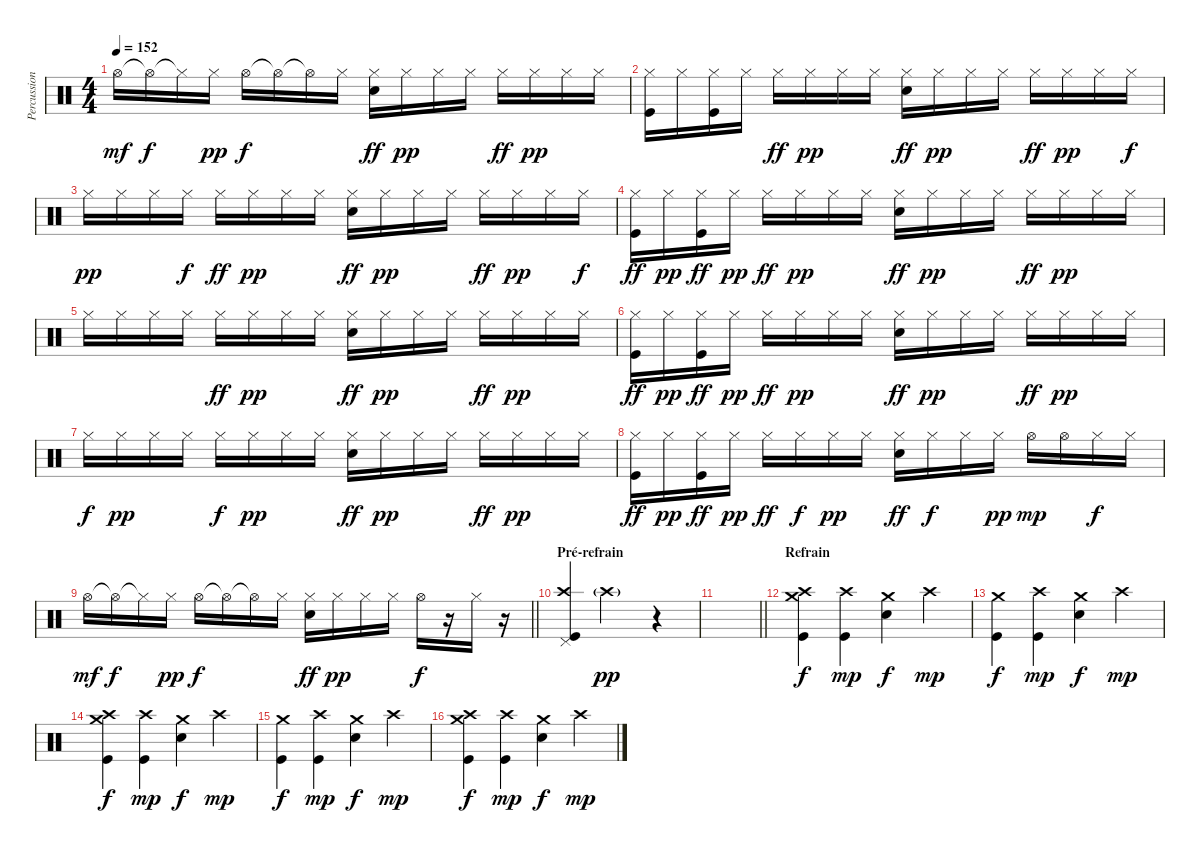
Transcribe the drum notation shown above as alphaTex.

\track ("Percussions" "Percussion") {instrument percussion}
\staff {score}
\articulation defaults
\ts (4 4)
\tempo 152
\clef neutral
\ks c "Hi-Hat (open)".16{dy mf} "Hi-Hat (open)"{t}.16{dy f} "Hi-Hat (closed)"{t}.16 "Hi-Hat (closed)".16{dy pp} "Hi-Hat (open)".16{dy f} "Hi-Hat (open)"{t}.16 "Hi-Hat (open)"{t}.16 "Hi-Hat (closed)".16
("Hi-Hat (closed)" "Snare (hit) 2").16{dy ff} "Hi-Hat (closed)".16{dy pp} "Hi-Hat (closed)".16 "Hi-Hat (closed)".16 "Hi-Hat (closed)".16{dy ff} "Hi-Hat (closed)".16{dy pp} "Hi-Hat (closed)".16 "Hi-Hat (closed)".16 |
("Hi-Hat (closed)" "Kick (hit)").16 "Hi-Hat (closed)".16 ("Hi-Hat (closed)" "Kick (hit)").16 "Hi-Hat (closed)".16 "Hi-Hat (closed)".16{dy ff} "Hi-Hat (closed)".16{dy pp} "Hi-Hat (closed)".16 "Hi-Hat (closed)".16 ("Hi-Hat (closed)" "Snare (hit) 2").16{dy ff} "Hi-Hat (closed)".16{dy pp} "Hi-Hat (closed)".16 "Hi-Hat (closed)".16 "Hi-Hat (closed)".16{dy ff} "Hi-Hat (closed)".16{dy pp} "Hi-Hat (closed)".16 "Hi-Hat (closed)".16{dy f} |
"Hi-Hat (closed)".16{dy pp} "Hi-Hat (closed)".16 "Hi-Hat (closed)".16 "Hi-Hat (closed)".16{dy f} "Hi-Hat (closed)".16{dy ff} "Hi-Hat (closed)".16{dy pp} "Hi-Hat (closed)".16 "Hi-Hat (closed)".16 ("Hi-Hat (closed)" "Snare (hit) 2").16{dy ff} "Hi-Hat (closed)".16{dy pp} "Hi-Hat (closed)".16 "Hi-Hat (closed)".16 "Hi-Hat (closed)".16{dy ff} "Hi-Hat (closed)".16{dy pp} "Hi-Hat (closed)".16 "Hi-Hat (closed)".16{dy f} |
("Hi-Hat (closed)" "Kick (hit)").16{dy ff} "Hi-Hat (closed)".16{dy pp} ("Hi-Hat (closed)" "Kick (hit)").16{dy ff} "Hi-Hat (closed)".16{dy pp} "Hi-Hat (closed)".16{dy ff} "Hi-Hat (closed)".16{dy pp} "Hi-Hat (closed)".16 "Hi-Hat (closed)".16 ("Hi-Hat (closed)" "Snare (hit) 2").16{dy ff} "Hi-Hat (closed)".16{dy pp} "Hi-Hat (closed)".16 "Hi-Hat (closed)".16 "Hi-Hat (closed)".16{dy ff} "Hi-Hat (closed)".16{dy pp} "Hi-Hat (closed)".16 "Hi-Hat (closed)".16 |
"Hi-Hat (closed)".16 "Hi-Hat (closed)".16 "Hi-Hat (closed)".16 "Hi-Hat (closed)".16 "Hi-Hat (closed)".16{dy ff} "Hi-Hat (closed)".16{dy pp} "Hi-Hat (closed)".16 "Hi-Hat (closed)".16 ("Hi-Hat (closed)" "Snare (hit) 2").16{dy ff} "Hi-Hat (closed)".16{dy pp} "Hi-Hat (closed)".16 "Hi-Hat (closed)".16 "Hi-Hat (closed)".16{dy ff} "Hi-Hat (closed)".16{dy pp} "Hi-Hat (closed)".16 "Hi-Hat (closed)".16 |
("Hi-Hat (closed)" "Kick (hit)").16{dy ff} "Hi-Hat (closed)".16{dy pp} ("Hi-Hat (closed)" "Kick (hit)").16{dy ff} "Hi-Hat (closed)".16{dy pp} "Hi-Hat (closed)".16{dy ff} "Hi-Hat (closed)".16{dy pp} "Hi-Hat (closed)".16 "Hi-Hat (closed)".16 ("Hi-Hat (closed)" "Snare (hit) 2").16{dy ff} "Hi-Hat (closed)".16{dy pp} "Hi-Hat (closed)".16 "Hi-Hat (closed)".16 "Hi-Hat (closed)".16{dy ff} "Hi-Hat (closed)".16{dy pp} "Hi-Hat (closed)".16 "Hi-Hat (closed)".16 |
"Hi-Hat (closed)".16{dy f} "Hi-Hat (closed)".16{dy pp} "Hi-Hat (closed)".16 "Hi-Hat (closed)".16 "Hi-Hat (closed)".16{dy f} "Hi-Hat (closed)".16{dy pp} "Hi-Hat (closed)".16 "Hi-Hat (closed)".16 ("Hi-Hat (closed)" "Snare (hit) 2").16{dy ff} "Hi-Hat (closed)".16{dy pp} "Hi-Hat (closed)".16 "Hi-Hat (closed)".16 "Hi-Hat (closed)".16{dy ff} "Hi-Hat (closed)".16{dy pp} "Hi-Hat (closed)".16 "Hi-Hat (closed)".16 |
("Hi-Hat (closed)" "Kick (hit)").16{dy ff} "Hi-Hat (closed)".16{dy pp} ("Hi-Hat (closed)" "Kick (hit)").16{dy ff} "Hi-Hat (closed)".16{dy pp} "Hi-Hat (closed)".16{dy ff} "Hi-Hat (closed)".16{dy f} "Hi-Hat (closed)".16{dy pp} "Hi-Hat (closed)".16 ("Hi-Hat (closed)" "Snare (hit) 2").16{dy ff} "Hi-Hat (closed)".16{dy f} "Hi-Hat (closed)".16 "Hi-Hat (closed)".16{dy pp} "Hi-Hat (open)".16{dy mp} "Hi-Hat (open)".16 "Hi-Hat (closed)".16{dy f} "Hi-Hat (closed)".16 |
\barLineRight lightlight "Hi-Hat (open)".16{dy mf} "Hi-Hat (open)"{t}.16{dy f} "Hi-Hat (closed)"{t}.16 "Hi-Hat (closed)".16{dy pp} "Hi-Hat (open)".16{dy f} "Hi-Hat (open)"{t}.16 "Hi-Hat (open)"{t}.16 "Hi-Hat (closed)".16
("Hi-Hat (closed)" "Snare (hit) 2").16{dy ff} "Hi-Hat (closed)".16{dy pp} "Hi-Hat (closed)".16 "Hi-Hat (closed)".16 "Hi-Hat (open)".16{dy f} r.16 "Hi-Hat (closed)".16 r.16 |
\section ("" "Pré-refrain")
("Crash high (hit)" "Pedal Hi-Hat (hit)" "Kick (hit)").4 "Crash high (hit)"{g}.2{dy pp} r.4 |
\barLineRight lightlight
|
\section ("" "Refrain")
("Crash high (hit)" "Crash medium (hit)" "Kick (hit)").4{dy f} ("Crash high (hit)" "Kick (hit)").4{dy mp} ("Crash medium (hit)" "Snare (hit) 2").4{dy f} "Crash high (hit)".4{dy mp} |
("Crash medium (hit)" "Kick (hit)").4{dy f} ("Crash high (hit)" "Kick (hit)").4{dy mp} ("Crash medium (hit)" "Snare (hit) 2").4{dy f} "Crash high (hit)".4{dy mp} |
("Crash high (hit)" "Crash medium (hit)" "Kick (hit)").4{dy f} ("Crash high (hit)" "Kick (hit)").4{dy mp} ("Crash medium (hit)" "Snare (hit) 2").4{dy f} "Crash high (hit)".4{dy mp} |
("Crash medium (hit)" "Kick (hit)").4{dy f} ("Crash high (hit)" "Kick (hit)").4{dy mp} ("Crash medium (hit)" "Snare (hit) 2").4{dy f} "Crash high (hit)".4{dy mp} |
("Crash high (hit)" "Crash medium (hit)" "Kick (hit)").4{dy f} ("Crash high (hit)" "Kick (hit)").4{dy mp} ("Crash medium (hit)" "Snare (hit) 2").4{dy f} "Crash high (hit)".4{dy mp}
